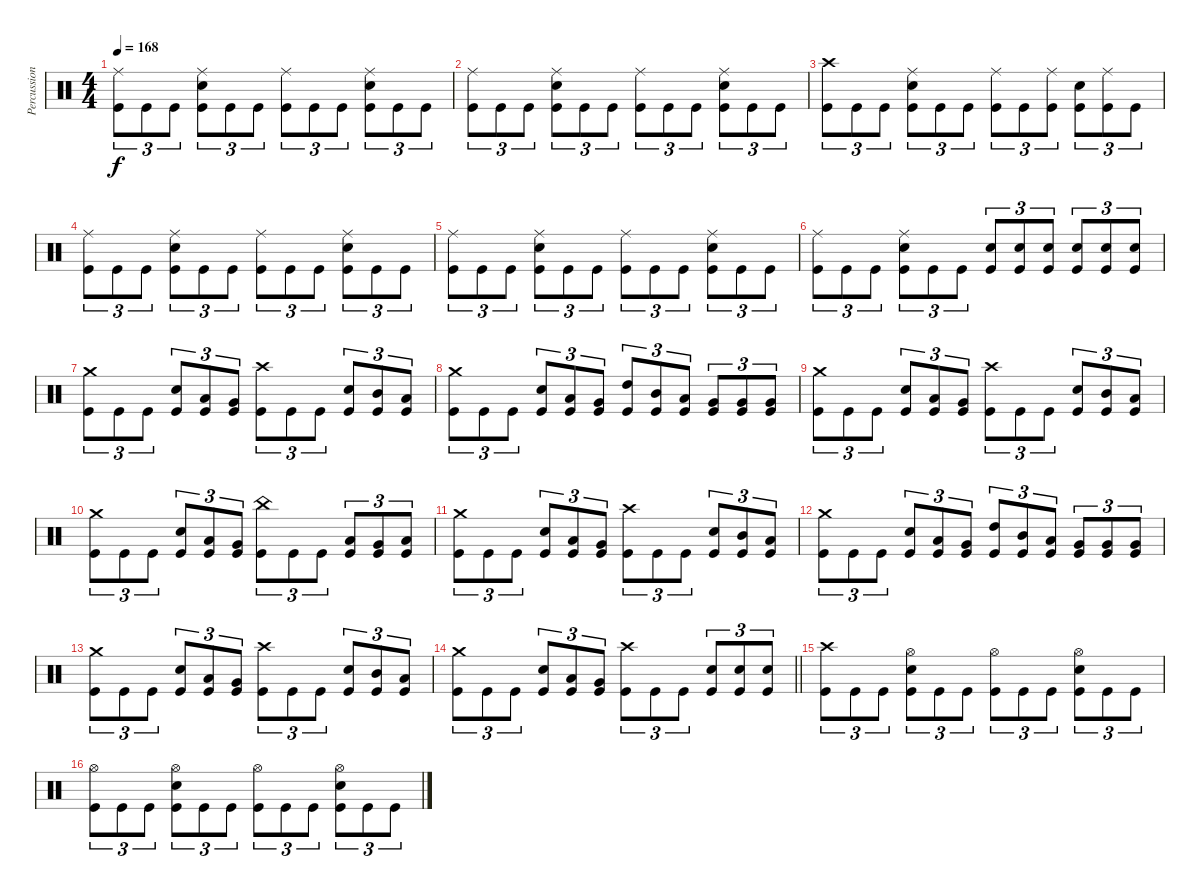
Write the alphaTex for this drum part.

\track ("Percussion" "Percussion") {instrument percussion}
\staff {score}
\articulation defaults
\ts (4 4)
\tempo 168
\clef neutral
\ks c
("Ride (middle)" "Kick (hit)").8{tu (3 2) dy f} "Kick (hit)".8{tu (3 2)} "Kick (hit)".8{tu (3 2)} ("Ride (middle)" "Electric Snare (hit)" "Kick (hit)").8{tu (3 2)} "Kick (hit)".8{tu (3 2)} "Kick (hit)".8{tu (3 2)} ("Ride (middle)" "Kick (hit)").8{tu (3 2)} "Kick (hit)".8{tu (3 2)} "Kick (hit)".8{tu (3 2)} ("Ride (middle)" "Electric Snare (hit)" "Kick (hit)").8{tu (3 2)} "Kick (hit)".8{tu (3 2)} "Kick (hit)".8{tu (3 2)} |
("Ride (middle)" "Kick (hit)").8{tu (3 2)} "Kick (hit)".8{tu (3 2)} "Kick (hit)".8{tu (3 2)} ("Ride (middle)" "Electric Snare (hit)" "Kick (hit)").8{tu (3 2)} "Kick (hit)".8{tu (3 2)} "Kick (hit)".8{tu (3 2)} ("Ride (middle)" "Kick (hit)").8{tu (3 2)} "Kick (hit)".8{tu (3 2)} "Kick (hit)".8{tu (3 2)} ("Ride (middle)" "Electric Snare (hit)" "Kick (hit)").8{tu (3 2)} "Kick (hit)".8{tu (3 2)} "Kick (hit)".8{tu (3 2)} |
("Crash high (hit)" "Kick (hit)").8{tu (3 2)} "Kick (hit)".8{tu (3 2)} "Kick (hit)".8{tu (3 2)} ("Ride (middle)" "Electric Snare (hit)" "Kick (hit)").8{tu (3 2)} "Kick (hit)".8{tu (3 2)} "Kick (hit)".8{tu (3 2)} ("Ride (middle)" "Kick (hit)").8{tu (3 2)} "Kick (hit)".8{tu (3 2)} ("Ride (middle)" "Kick (hit)").8{tu (3 2)} ("Electric Snare (hit)" "Kick (hit)").8{tu (3 2)} ("Ride (middle)" "Kick (hit)").8{tu (3 2)} "Kick (hit)".8{tu (3 2)} |
("Ride (middle)" "Kick (hit)").8{tu (3 2)} "Kick (hit)".8{tu (3 2)} "Kick (hit)".8{tu (3 2)} ("Ride (middle)" "Electric Snare (hit)" "Kick (hit)").8{tu (3 2)} "Kick (hit)".8{tu (3 2)} "Kick (hit)".8{tu (3 2)} ("Ride (middle)" "Kick (hit)").8{tu (3 2)} "Kick (hit)".8{tu (3 2)} "Kick (hit)".8{tu (3 2)} ("Ride (middle)" "Electric Snare (hit)" "Kick (hit)").8{tu (3 2)} "Kick (hit)".8{tu (3 2)} "Kick (hit)".8{tu (3 2)} |
("Ride (middle)" "Kick (hit)").8{tu (3 2)} "Kick (hit)".8{tu (3 2)} "Kick (hit)".8{tu (3 2)} ("Ride (middle)" "Electric Snare (hit)" "Kick (hit)").8{tu (3 2)} "Kick (hit)".8{tu (3 2)} "Kick (hit)".8{tu (3 2)} ("Ride (middle)" "Kick (hit)").8{tu (3 2)} "Kick (hit)".8{tu (3 2)} "Kick (hit)".8{tu (3 2)} ("Ride (middle)" "Electric Snare (hit)" "Kick (hit)").8{tu (3 2)} "Kick (hit)".8{tu (3 2)} "Kick (hit)".8{tu (3 2)} |
("Ride (middle)" "Kick (hit)").8{tu (3 2)} "Kick (hit)".8{tu (3 2)} "Kick (hit)".8{tu (3 2)} ("Ride (middle)" "Electric Snare (hit)" "Kick (hit)").8{tu (3 2)} "Kick (hit)".8{tu (3 2)} "Kick (hit)".8{tu (3 2)} ("Electric Snare (hit)" "Kick (hit)").8{tu (3 2)} ("Electric Snare (hit)" "Kick (hit)").8{tu (3 2)} ("Electric Snare (hit)" "Kick (hit)").8{tu (3 2)} ("Electric Snare (hit)" "Kick (hit)").8{tu (3 2)} ("Electric Snare (hit)" "Kick (hit)").8{tu (3 2)} ("Electric Snare (hit)" "Kick (hit)").8{tu (3 2)} |
("Crash medium (hit)" "Kick (hit)").8{tu (3 2)} "Kick (hit)".8{tu (3 2)} "Kick (hit)".8{tu (3 2)} ("Electric Snare (hit)" "Kick (hit)").8{tu (3 2)} ("Low Tom (hit)" "Kick (hit)").8{tu (3 2)} ("Very Low Tom (hit)" "Kick (hit)").8{tu (3 2)} ("Crash high (hit)" "Kick (hit)").8{tu (3 2)} "Kick (hit)".8{tu (3 2)} "Kick (hit)".8{tu (3 2)} ("Electric Snare (hit)" "Kick (hit)").8{tu (3 2)} ("Mid Tom (hit)" "Kick (hit)").8{tu (3 2)} ("Low Tom (hit)" "Kick (hit)").8{tu (3 2)} |
("Crash medium (hit)" "Kick (hit)").8{tu (3 2)} "Kick (hit)".8{tu (3 2)} "Kick (hit)".8{tu (3 2)} ("Electric Snare (hit)" "Kick (hit)").8{tu (3 2)} ("Low Tom (hit)" "Kick (hit)").8{tu (3 2)} ("Very Low Tom (hit)" "Kick (hit)").8{tu (3 2)} ("High Tom (hit)" "Kick (hit)").8{tu (3 2)} ("Mid Tom (hit)" "Kick (hit)").8{tu (3 2)} ("Low Tom (hit)" "Kick (hit)").8{tu (3 2)} ("Very Low Tom (hit)" "Kick (hit)").8{tu (3 2)} ("Very Low Tom (hit)" "Kick (hit)").8{tu (3 2)} ("Very Low Tom (hit)" "Kick (hit)").8{tu (3 2)} |
("Crash medium (hit)" "Kick (hit)").8{tu (3 2)} "Kick (hit)".8{tu (3 2)} "Kick (hit)".8{tu (3 2)} ("Electric Snare (hit)" "Kick (hit)").8{tu (3 2)} ("Low Tom (hit)" "Kick (hit)").8{tu (3 2)} ("Very Low Tom (hit)" "Kick (hit)").8{tu (3 2)} ("Crash high (hit)" "Kick (hit)").8{tu (3 2)} "Kick (hit)".8{tu (3 2)} "Kick (hit)".8{tu (3 2)} ("Electric Snare (hit)" "Kick (hit)").8{tu (3 2)} ("Mid Tom (hit)" "Kick (hit)").8{tu (3 2)} ("Low Tom (hit)" "Kick (hit)").8{tu (3 2)} |
("Crash medium (hit)" "Kick (hit)").8{tu (3 2)} "Kick (hit)".8{tu (3 2)} "Kick (hit)".8{tu (3 2)} ("Electric Snare (hit)" "Kick (hit)").8{tu (3 2)} ("Low Tom (hit)" "Kick (hit)").8{tu (3 2)} ("Very Low Tom (hit)" "Kick (hit)").8{tu (3 2)} ("China (hit)" "Kick (hit)").8{tu (3 2)} "Kick (hit)".8{tu (3 2)} "Kick (hit)".8{tu (3 2)} ("Low Tom (hit)" "Kick (hit)").8{tu (3 2)} ("Very Low Tom (hit)" "Kick (hit)").8{tu (3 2)} ("Low Floor Tom (hit)" "Kick (hit)").8{tu (3 2)} |
("Crash medium (hit)" "Kick (hit)").8{tu (3 2)} "Kick (hit)".8{tu (3 2)} "Kick (hit)".8{tu (3 2)} ("Electric Snare (hit)" "Kick (hit)").8{tu (3 2)} ("Low Tom (hit)" "Kick (hit)").8{tu (3 2)} ("Very Low Tom (hit)" "Kick (hit)").8{tu (3 2)} ("Crash high (hit)" "Kick (hit)").8{tu (3 2)} "Kick (hit)".8{tu (3 2)} "Kick (hit)".8{tu (3 2)} ("Electric Snare (hit)" "Kick (hit)").8{tu (3 2)} ("Mid Tom (hit)" "Kick (hit)").8{tu (3 2)} ("Low Tom (hit)" "Kick (hit)").8{tu (3 2)} |
("Crash medium (hit)" "Kick (hit)").8{tu (3 2)} "Kick (hit)".8{tu (3 2)} "Kick (hit)".8{tu (3 2)} ("Electric Snare (hit)" "Kick (hit)").8{tu (3 2)} ("Low Tom (hit)" "Kick (hit)").8{tu (3 2)} ("Very Low Tom (hit)" "Kick (hit)").8{tu (3 2)} ("High Tom (hit)" "Kick (hit)").8{tu (3 2)} ("Mid Tom (hit)" "Kick (hit)").8{tu (3 2)} ("Low Tom (hit)" "Kick (hit)").8{tu (3 2)} ("Very Low Tom (hit)" "Kick (hit)").8{tu (3 2)} ("Very Low Tom (hit)" "Kick (hit)").8{tu (3 2)} ("Very Low Tom (hit)" "Kick (hit)").8{tu (3 2)} |
("Crash medium (hit)" "Kick (hit)").8{tu (3 2)} "Kick (hit)".8{tu (3 2)} "Kick (hit)".8{tu (3 2)} ("Electric Snare (hit)" "Kick (hit)").8{tu (3 2)} ("Low Tom (hit)" "Kick (hit)").8{tu (3 2)} ("Very Low Tom (hit)" "Kick (hit)").8{tu (3 2)} ("Crash high (hit)" "Kick (hit)").8{tu (3 2)} "Kick (hit)".8{tu (3 2)} "Kick (hit)".8{tu (3 2)} ("Electric Snare (hit)" "Kick (hit)").8{tu (3 2)} ("Mid Tom (hit)" "Kick (hit)").8{tu (3 2)} ("Low Tom (hit)" "Kick (hit)").8{tu (3 2)} |
\barLineRight lightlight
("Crash medium (hit)" "Kick (hit)").8{tu (3 2)} "Kick (hit)".8{tu (3 2)} "Kick (hit)".8{tu (3 2)} ("Electric Snare (hit)" "Kick (hit)").8{tu (3 2)} ("Low Tom (hit)" "Kick (hit)").8{tu (3 2)} ("Very Low Tom (hit)" "Kick (hit)").8{tu (3 2)} ("Crash high (hit)" "Kick (hit)").8{tu (3 2)} "Kick (hit)".8{tu (3 2)} "Kick (hit)".8{tu (3 2)} ("Electric Snare (hit)" "Kick (hit)").8{tu (3 2)} ("Electric Snare (hit)" "Kick (hit)").8{tu (3 2)} ("Electric Snare (hit)" "Kick (hit)").8{tu (3 2)} |
("Crash high (hit)" "Kick (hit)").8{tu (3 2)} "Kick (hit)".8{tu (3 2)} "Kick (hit)".8{tu (3 2)} ("Hi-Hat (open)" "Electric Snare (hit)" "Kick (hit)").8{tu (3 2)} "Kick (hit)".8{tu (3 2)} "Kick (hit)".8{tu (3 2)} ("Hi-Hat (open)" "Kick (hit)").8{tu (3 2)} "Kick (hit)".8{tu (3 2)} "Kick (hit)".8{tu (3 2)} ("Hi-Hat (open)" "Electric Snare (hit)" "Kick (hit)").8{tu (3 2)} "Kick (hit)".8{tu (3 2)} "Kick (hit)".8{tu (3 2)} |
("Hi-Hat (open)" "Kick (hit)").8{tu (3 2)} "Kick (hit)".8{tu (3 2)} "Kick (hit)".8{tu (3 2)} ("Hi-Hat (open)" "Electric Snare (hit)" "Kick (hit)").8{tu (3 2)} "Kick (hit)".8{tu (3 2)} "Kick (hit)".8{tu (3 2)} ("Hi-Hat (open)" "Kick (hit)").8{tu (3 2)} "Kick (hit)".8{tu (3 2)} "Kick (hit)".8{tu (3 2)} ("Hi-Hat (open)" "Electric Snare (hit)" "Kick (hit)").8{tu (3 2)} "Kick (hit)".8{tu (3 2)} "Kick (hit)".8{tu (3 2)}
